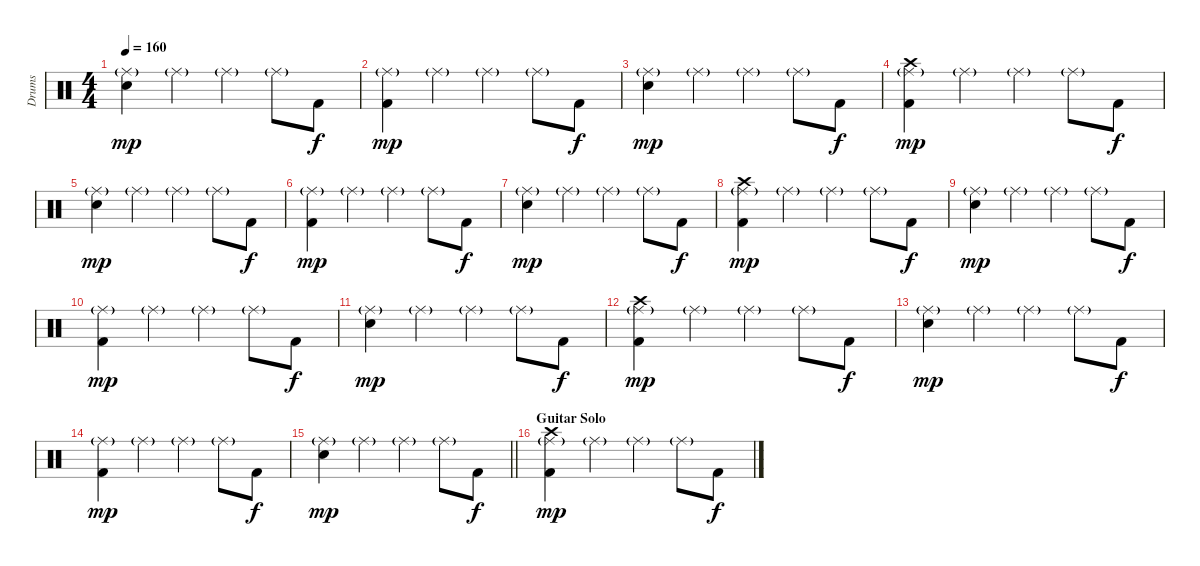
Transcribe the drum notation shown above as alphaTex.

\track ("Drums" "Drums") {instrument percussion}
\staff {score}
\articulation defaults
\ts (4 4)
\tempo 160
\clef neutral
\ks c
("Snare (hit) 2" "Ride (middle)"{g}).4{dy mp} "Ride (middle)"{g}.4 "Ride (middle)"{g}.4 "Ride (middle)"{g}.8 "Kick (hit) 2".8{dy f} |
("Kick (hit) 2" "Ride (middle)"{g}).4{dy mp} "Ride (middle)"{g}.4 "Ride (middle)"{g}.4 "Ride (middle)"{g}.8 "Kick (hit) 2".8{dy f} |
("Snare (hit) 2" "Ride (middle)"{g}).4{dy mp} "Ride (middle)"{g}.4 "Ride (middle)"{g}.4 "Ride (middle)"{g}.8 "Kick (hit) 2".8{dy f} |
("Kick (hit) 2" "Ride (middle)"{g} "Crash high (hit)").4{dy mp} "Ride (middle)"{g}.4 "Ride (middle)"{g}.4 "Ride (middle)"{g}.8 "Kick (hit) 2".8{dy f} |
("Snare (hit) 2" "Ride (middle)"{g}).4{dy mp} "Ride (middle)"{g}.4 "Ride (middle)"{g}.4 "Ride (middle)"{g}.8 "Kick (hit) 2".8{dy f} |
("Kick (hit) 2" "Ride (middle)"{g}).4{dy mp} "Ride (middle)"{g}.4 "Ride (middle)"{g}.4 "Ride (middle)"{g}.8 "Kick (hit) 2".8{dy f} |
("Snare (hit) 2" "Ride (middle)"{g}).4{dy mp} "Ride (middle)"{g}.4 "Ride (middle)"{g}.4 "Ride (middle)"{g}.8 "Kick (hit) 2".8{dy f} |
("Kick (hit) 2" "Ride (middle)"{g} "Crash high (hit)").4{dy mp} "Ride (middle)"{g}.4 "Ride (middle)"{g}.4 "Ride (middle)"{g}.8 "Kick (hit) 2".8{dy f} |
("Snare (hit) 2" "Ride (middle)"{g}).4{dy mp} "Ride (middle)"{g}.4 "Ride (middle)"{g}.4 "Ride (middle)"{g}.8 "Kick (hit) 2".8{dy f} |
("Kick (hit) 2" "Ride (middle)"{g}).4{dy mp} "Ride (middle)"{g}.4 "Ride (middle)"{g}.4 "Ride (middle)"{g}.8 "Kick (hit) 2".8{dy f} |
("Snare (hit) 2" "Ride (middle)"{g}).4{dy mp} "Ride (middle)"{g}.4 "Ride (middle)"{g}.4 "Ride (middle)"{g}.8 "Kick (hit) 2".8{dy f} |
("Kick (hit) 2" "Ride (middle)"{g} "Crash high (hit)").4{dy mp} "Ride (middle)"{g}.4 "Ride (middle)"{g}.4 "Ride (middle)"{g}.8 "Kick (hit) 2".8{dy f} |
("Snare (hit) 2" "Ride (middle)"{g}).4{dy mp} "Ride (middle)"{g}.4 "Ride (middle)"{g}.4 "Ride (middle)"{g}.8 "Kick (hit) 2".8{dy f} |
("Kick (hit) 2" "Ride (middle)"{g}).4{dy mp} "Ride (middle)"{g}.4 "Ride (middle)"{g}.4 "Ride (middle)"{g}.8 "Kick (hit) 2".8{dy f} |
\barLineRight lightlight
("Snare (hit) 2" "Ride (middle)"{g}).4{dy mp} "Ride (middle)"{g}.4 "Ride (middle)"{g}.4 "Ride (middle)"{g}.8 "Kick (hit) 2".8{dy f} |
\section ("" "Guitar Solo")
("Kick (hit) 2" "Ride (middle)"{g} "Crash high (hit)").4{dy mp} "Ride (middle)"{g}.4 "Ride (middle)"{g}.4 "Ride (middle)"{g}.8 "Kick (hit) 2".8{dy f}
